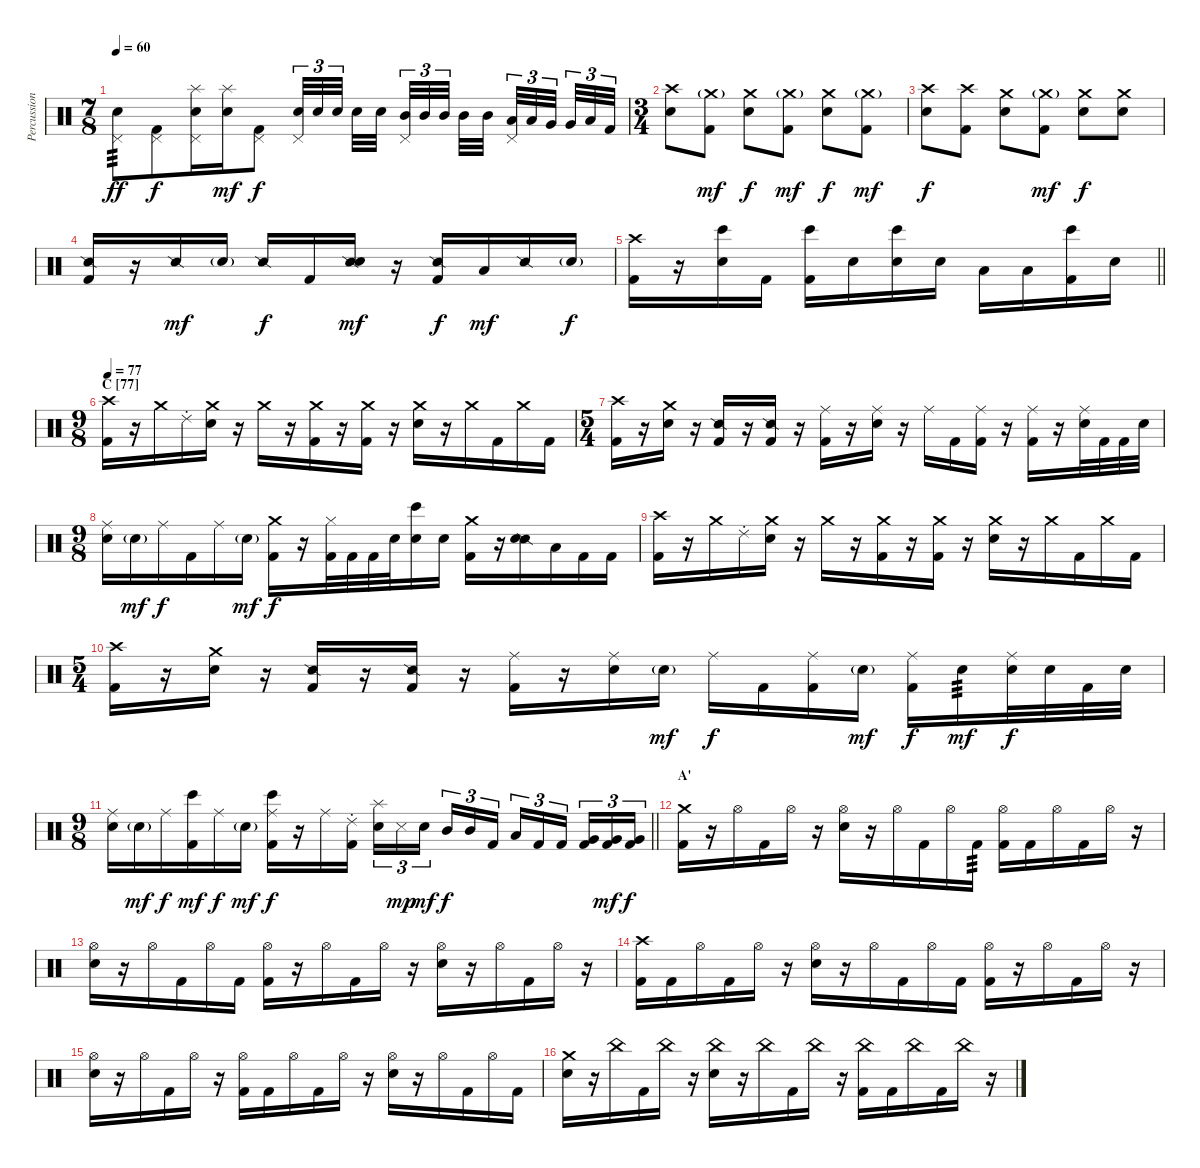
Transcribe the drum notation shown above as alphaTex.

\track ("Percussion" "Percussion") {instrument percussion}
\staff {score}
\articulation defaults
\ts (7 8)
\tempo 60
\clef neutral
\ks c
("Pedal Hi-Hat (hit)" "Snare (hit) 2").8{tp 3 dy ff} ("Pedal Hi-Hat (hit)" "Kick (hit) 2").8{dy f} ("Splash (hit)" "Pedal Hi-Hat (hit)" "Snare (hit) 2").16 ("Splash (hit)" "Snare (hit) 2").16{dy mf} ("Pedal Hi-Hat (hit)" "Kick (hit) 2").8{dy f} ("Pedal Hi-Hat (hit)" "Snare (hit) 2").32{tu (3 2)} "Snare (hit) 2".32{tu (3 2)} "Snare (hit) 2".32{tu (3 2) beam splitsecondary} "Snare (hit) 2".32 "Snare (hit) 2".32 ("Pedal Hi-Hat (hit)" "Mid Tom (hit)").32{tu (3 2)} "Mid Tom (hit)".32{tu (3 2)} "Mid Tom (hit)".32{tu (3 2) beam splitsecondary} "Mid Tom (hit)".32 "Mid Tom (hit)".32 ("Pedal Hi-Hat (hit)" "Low Tom (hit)").32{tu (3 2)} "Low Tom (hit)".32{tu (3 2)} "Very Low Tom (hit)".32{tu (3 2) beam splitsecondary} "Very Low Tom (hit)".32{tu (3 2)} "Low Floor Tom (hit)".32{tu (3 2)} "Kick (hit) 2".32{tu (3 2)} |
\ts (3 4)
("Crash high (hit)" "Snare (hit) 2").8 ("Crash medium (hit)"{g} "Kick (hit) 2").8{dy mf} ("Crash medium (hit)" "Snare (hit) 2").8{dy f} ("Crash medium (hit)"{g} "Kick (hit) 2").8{dy mf} ("Crash medium (hit)" "Snare (hit) 2").8{dy f} ("Crash medium (hit)"{g} "Kick (hit) 2").8{dy mf} |
("Crash high (hit)" "Snare (hit) 2").8{dy f} ("Crash high (hit)" "Kick (hit) 2").8 ("Crash medium (hit)" "Snare (hit) 2").8 ("Crash medium (hit)"{g} "Kick (hit) 2").8{dy mf} ("Crash medium (hit)" "Snare (hit) 2").8{dy f} ("Crash medium (hit)" "Snare (hit) 2").8 |
("Snare (side stick) 2" "Kick (hit) 2").16 r.16 "Snare (side stick) 2".16{dy mf} "Snare (hit) 2"{g}.16 "Snare (side stick) 2".16{dy f} "Kick (hit) 2".16 ("Snare (side stick) 2" "Snare (hit) 2").16{dy mf} r.16 ("Snare (side stick) 2" "Kick (hit) 2").16{dy f} "Low Tom (hit)".16{dy mf} "Snare (side stick) 2".16 "Snare (hit) 2"{g}.16{dy f} |
\barLineRight lightlight
("Crash high (hit)" "Kick (hit) 2").16 r.16 ("Bongo High (hit)" "Snare (hit) 2").16 "Kick (hit) 2".16 ("Bongo High (hit)" "Kick (hit) 2").16 "Snare (hit) 2".16 ("Bongo High (hit)" "Snare (hit) 2").16 "Snare (hit) 2".16 "Low Tom (hit)".16 "Low Tom (hit)".16 ("Bongo High (hit)" "Kick (hit) 2").16 "Snare (hit) 2".16 |
\ts (9 8)
\section ("" "C [77]")
\tempo 77
("Crash high (hit)" "Kick (hit) 2").16 r.16 "Crash medium (hit)".16 "Ride (choke) 2".16 ("Crash medium (hit)" "Snare (hit) 2").16 r.16 "Crash medium (hit)".16 r.16 ("Crash medium (hit)" "Kick (hit) 2").16 r.16 ("Crash medium (hit)" "Kick (hit) 2").16 r.16 ("Crash medium (hit)" "Snare (hit) 2").16 r.16 "Crash medium (hit)".16 "Kick (hit) 2".16 "Crash medium (hit)".16 "Kick (hit) 2".16 |
\ts (5 4)
("Crash high (hit)" "Kick (hit) 2").16 r.16 ("Crash medium (hit)" "Snare (hit) 2").16 r.16 ("Snare (side stick) 2" "Kick (hit) 2").16 r.16 ("Snare (side stick) 2" "Kick (hit) 2").16 r.16 ("Ride (middle)" "Kick (hit) 2").16 r.16 ("Ride (middle)" "Snare (hit) 2").16 r.16 "Ride (middle)".16 "Kick (hit) 2".16 ("Ride (middle)" "Kick (hit) 2").16 r.16 ("Ride (middle)" "Kick (hit) 2").16 r.16 ("Ride (middle)" "Snare (hit) 2").32 "Kick (hit) 2".32 "Kick (hit) 2".32 "Snare (hit) 2".32 |
\ts (9 8)
("Ride (middle)" "Snare (hit) 2").16 "Snare (hit) 2"{g}.16{dy mf} "Ride (middle)".16{dy f} "Kick (hit) 2".16 "Ride (middle)".16 "Snare (hit) 2"{g}.16{dy mf} ("Crash medium (hit)" "Kick (hit) 2").16{dy f} r.16 ("Hi-Hat (closed)" "Kick (hit) 2").32 "Kick (hit) 2".32 "Kick (hit) 2".32 "Snare (hit) 2".32 ("Bongo High (hit)" "Snare (hit) 2").16 "Snare (hit) 2".16 ("Crash medium (hit)" "Kick (hit) 2").16 r.16 ("Snare (side stick) 2" "Snare (hit) 2").16 "Low Tom (hit)".16 "Kick (hit) 2".16 "Kick (hit) 2".16 |
("Crash high (hit)" "Kick (hit) 2").16 r.16 "Crash medium (hit)".16 "Ride (choke) 2".16 ("Crash medium (hit)" "Snare (hit) 2").16 r.16 "Crash medium (hit)".16 r.16 ("Crash medium (hit)" "Kick (hit) 2").16 r.16 ("Crash medium (hit)" "Kick (hit) 2").16 r.16 ("Crash medium (hit)" "Snare (hit) 2").16 r.16 "Crash medium (hit)".16 "Kick (hit) 2".16 "Crash medium (hit)".16 "Kick (hit) 2".16 |
\ts (5 4)
("Crash high (hit)" "Kick (hit) 2").16 r.16 ("Crash medium (hit)" "Snare (hit) 2").16 r.16 ("Snare (side stick) 2" "Kick (hit) 2").16 r.16 ("Snare (side stick) 2" "Kick (hit) 2").16 r.16 ("Ride (middle)" "Kick (hit) 2").16 r.16 ("Ride (middle)" "Snare (hit) 2").16 "Snare (hit) 2"{g}.16{dy mf} "Ride (middle)".16{dy f} "Kick (hit) 2".16 ("Ride (middle)" "Kick (hit) 2").16 "Snare (hit) 2"{g}.16{dy mf} ("Ride (middle)" "Kick (hit) 2").16{dy f} "Snare (hit) 2".16{tp 3 dy mf} ("Ride (middle)" "Snare (hit) 2").32{dy f} "Snare (hit) 2".32 "Kick (hit) 2".32 "Snare (hit) 2".32 |
\ts (9 8)
\barLineRight lightlight
("Ride (middle)" "Snare (hit) 2").16 "Snare (hit) 2"{g}.16{dy mf} "Ride (middle)".16{dy f} ("Bongo High (hit)" "Kick (hit) 2").16{dy mf} "Ride (middle)".16{dy f} "Snare (hit) 2"{g}.16{dy mf} ("Ride (middle)" "Bongo High (hit)" "Kick (hit) 2").16{dy f} r.16 "Ride (middle)".16 ("Ride (choke) 2" "Kick (hit) 2").16{beam splitsecondary} ("Splash (hit)" "Snare (hit) 2").16{tu (3 2)} "Metronome (hit)".16{tu (3 2) dy mp} "Snare (hit) 2".16{tu (3 2) dy mf} "Mid Tom (hit)".16{tu (3 2) dy f} "Mid Tom (hit)".16{tu (3 2)} "Kick (hit) 2".16{tu (3 2) beam splitsecondary} "Low Tom (hit)".16{tu (3 2)} "Kick (hit) 2".16{tu (3 2)} "Kick (hit) 2".16{tu (3 2) beam splitsecondary} ("Very Low Tom (hit)" "Kick (hit) 2").16{tu (3 2)} ("Very Low Tom (hit)" "Kick (hit) 2").16{tu (3 2) dy mf} ("Very Low Tom (hit)" "Kick (hit) 2").16{tu (3 2) dy f} |
\section ("" "A'")
("Crash medium (hit)" "Kick (hit) 2").16 r.16 "Hi-Hat (open)".16 "Kick (hit) 2".16 "Hi-Hat (open)".16 r.16 ("Hi-Hat (open)" "Snare (hit) 2").16 r.16 "Hi-Hat (open)".16 "Kick (hit) 2".16 "Hi-Hat (open)".16 "Kick (hit) 2".16{tp 3} ("Hi-Hat (open)" "Kick (hit) 2").16 "Kick (hit) 2".16 "Hi-Hat (open)".16 "Kick (hit) 2".16 "Hi-Hat (open)".16 r.16 |
("Hi-Hat (open)" "Snare (hit) 2").16 r.16 "Hi-Hat (open)".16 "Kick (hit) 2".16 "Hi-Hat (open)".16 "Kick (hit) 2".16 ("Hi-Hat (open)" "Kick (hit) 2").16 r.16 "Hi-Hat (open)".16 "Kick (hit) 2".16 "Hi-Hat (open)".16 r.16 ("Hi-Hat (open)" "Snare (hit) 2").16 r.16 "Hi-Hat (open)".16 "Kick (hit) 2".16 "Hi-Hat (open)".16 r.16 |
("Crash high (hit)" "Kick (hit) 2").16 "Kick (hit) 2".16 "Hi-Hat (open)".16 "Kick (hit) 2".16 "Hi-Hat (open)".16 r.16 ("Hi-Hat (open)" "Snare (hit) 2").16 r.16 "Hi-Hat (open)".16 "Kick (hit) 2".16 "Hi-Hat (open)".16 "Kick (hit) 2".16 ("Hi-Hat (open)" "Kick (hit) 2").16 r.16 "Hi-Hat (open)".16 "Kick (hit) 2".16 "Hi-Hat (open)".16 r.16 |
("Hi-Hat (open)" "Snare (hit) 2").16 r.16 "Hi-Hat (open)".16 "Kick (hit) 2".16 "Hi-Hat (open)".16 r.16 ("Hi-Hat (open)" "Kick (hit) 2").16 "Kick (hit) 2".16 "Hi-Hat (open)".16 "Kick (hit) 2".16 "Hi-Hat (open)".16 r.16 ("Hi-Hat (open)" "Snare (hit) 2").16 r.16 "Hi-Hat (open)".16 "Kick (hit) 2".16 "Hi-Hat (open)".16 "Kick (hit) 2".16 |
("Crash medium (hit)" "Snare (hit) 2").16 r.16 "China (hit)".16 "Kick (hit) 2".16 "China (hit)".16 r.16 ("China (hit)" "Snare (hit) 2").16 r.16 "China (hit)".16 "Kick (hit) 2".16 "China (hit)".16 r.16 ("China (hit)" "Kick (hit) 2").16 "Kick (hit) 2".16 "China (hit)".16 "Kick (hit) 2".16 "China (hit)".16 r.16
